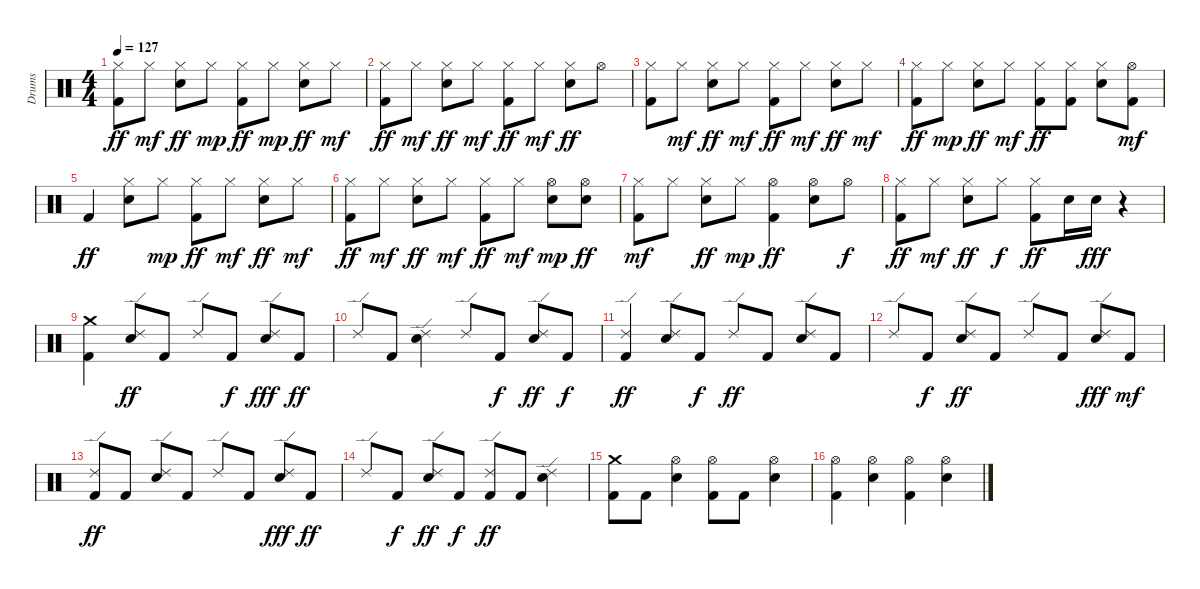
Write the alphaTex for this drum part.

\track ("Drums" "Drums") {instrument percussion}
\staff {score}
\articulation defaults
\ts (4 4)
\tempo 127
\clef neutral
\ks c
("Hi-Hat (closed)" "Kick (hit) 2").8{dy ff} "Hi-Hat (closed)".8{dy mf} ("Electric Snare (hit)" "Hi-Hat (closed)").8{dy ff} "Hi-Hat (closed)".8{dy mp} ("Hi-Hat (closed)" "Kick (hit) 2").8{dy ff} "Hi-Hat (closed)".8{dy mp} ("Electric Snare (hit)" "Hi-Hat (closed)").8{dy ff} "Hi-Hat (closed)".8{dy mf} |
("Hi-Hat (closed)" "Kick (hit) 2").8{dy ff} "Hi-Hat (closed)".8{dy mf} ("Hi-Hat (closed)" "Electric Snare (hit)").8{dy ff} "Hi-Hat (closed)".8{dy mf} ("Hi-Hat (closed)" "Kick (hit) 2").8{dy ff} "Hi-Hat (closed)".8{dy mf} ("Electric Snare (hit)" "Hi-Hat (closed)").8{dy ff} "Hi-Hat (open)".8 |
("Hi-Hat (closed)" "Kick (hit) 2").8 "Hi-Hat (closed)".8{dy mf} ("Electric Snare (hit)" "Hi-Hat (closed)").8{dy ff} "Hi-Hat (closed)".8{dy mf} ("Kick (hit) 2" "Hi-Hat (closed)").8{dy ff} "Hi-Hat (closed)".8{dy mf} ("Hi-Hat (closed)" "Electric Snare (hit)").8{dy ff} "Hi-Hat (closed)".8{dy mf} |
("Kick (hit) 2" "Hi-Hat (closed)").8{dy ff} "Hi-Hat (closed)".8{dy mp} ("Electric Snare (hit)" "Hi-Hat (closed)").8{dy ff} "Hi-Hat (closed)".8{dy mf} ("Kick (hit) 2" "Hi-Hat (closed)").8{dy ff} ("Kick (hit) 2" "Hi-Hat (closed)").8 ("Electric Snare (hit)" "Hi-Hat (closed)").8 ("Hi-Hat (open)" "Kick (hit) 2").8{dy mf} |
"Kick (hit) 2".4{dy ff} ("Electric Snare (hit)" "Hi-Hat (closed)").8 "Hi-Hat (closed)".8{dy mp} ("Hi-Hat (closed)" "Kick (hit) 2").8{dy ff} "Hi-Hat (closed)".8{dy mf} ("Hi-Hat (closed)" "Electric Snare (hit)").8{dy ff} "Hi-Hat (closed)".8{dy mf} |
("Hi-Hat (closed)" "Kick (hit) 2").8{dy ff} "Hi-Hat (closed)".8{dy mf} ("Hi-Hat (closed)" "Electric Snare (hit)").8{dy ff} "Hi-Hat (closed)".8{dy mf} ("Hi-Hat (closed)" "Kick (hit) 2").8{dy ff} "Hi-Hat (closed)".8{dy mf} ("Electric Snare (hit)" "Hi-Hat (open)").8{dy mp} ("Electric Snare (hit)" "Hi-Hat (open)").8{dy ff} |
("Kick (hit) 2" "Hi-Hat (closed)").8{dy mf} "Hi-Hat (closed)".8 ("Electric Snare (hit)" "Hi-Hat (closed)").8{dy ff} "Hi-Hat (closed)".8{dy mp} ("Hi-Hat (open)" "Kick (hit) 2").4{dy ff} ("Hi-Hat (open)" "Electric Snare (hit)").8 "Hi-Hat (open)".8{dy f} |
("Hi-Hat (closed)" "Kick (hit) 2").8{dy ff} "Hi-Hat (closed)".8{dy mf} ("Hi-Hat (closed)" "Electric Snare (hit)").8{dy ff} "Hi-Hat (closed)".8{dy f} ("Kick (hit) 2" "Hi-Hat (closed)").8{dy ff} "Electric Snare (hit)".16 "Electric Snare (hit)".16{dy fff} r.4 |
("Crash medium (hit)" "Kick (hit) 2").4 ("Ride (edge) 2" "Electric Snare (hit)").8{dy ff} "Kick (hit) 2".8 "Ride (edge) 2".8 "Kick (hit) 2".8{dy f} ("Ride (edge) 2" "Electric Snare (hit)").8{dy fff} "Kick (hit) 2".8{dy ff} |
"Ride (edge) 2".8 "Kick (hit) 2".8 ("Ride (edge) 2" "Electric Snare (hit)").4 "Ride (edge) 2".8 "Kick (hit) 2".8{dy f} ("Ride (edge) 2" "Electric Snare (hit)").8{dy ff} "Kick (hit) 2".8{dy f} |
("Ride (edge) 2" "Kick (hit) 2").4{dy ff} ("Ride (edge) 2" "Electric Snare (hit)").8 "Kick (hit) 2".8{dy f} "Ride (edge) 2".8{dy ff} "Kick (hit) 2".8 ("Ride (edge) 2" "Electric Snare (hit)").8 "Kick (hit) 2".8 |
"Ride (edge) 2".8 "Kick (hit) 2".8{dy f} ("Ride (edge) 2" "Electric Snare (hit)").8{dy ff} "Kick (hit) 2".8 "Ride (edge) 2".8 "Kick (hit) 2".8 ("Ride (edge) 2" "Electric Snare (hit)").8{dy fff} "Kick (hit) 2".8{dy mf} |
("Ride (edge) 2" "Kick (hit) 2").8{dy ff} "Kick (hit) 2".8 ("Ride (edge) 2" "Electric Snare (hit)").8 "Kick (hit) 2".8 "Ride (edge) 2".8 "Kick (hit) 2".8 ("Ride (edge) 2" "Electric Snare (hit)").8{dy fff} "Kick (hit) 2".8{dy ff} |
"Ride (edge) 2".8 "Kick (hit) 2".8{dy f} ("Ride (edge) 2" "Electric Snare (hit)").8{dy ff} "Kick (hit) 2".8{dy f} ("Ride (edge) 2" "Kick (hit) 2").8{dy ff} "Kick (hit) 2".8 ("Ride (edge) 2" "Electric Snare (hit)").4 |
("Crash medium (hit)" "Kick (hit) 2").8 "Kick (hit) 2".8 ("Electric Snare (hit)" "Hi-Hat (open)").4 ("Hi-Hat (open)" "Kick (hit) 2").8 "Kick (hit) 2".8 ("Hi-Hat (open)" "Electric Snare (hit)").4 |
("Kick (hit) 2" "Hi-Hat (open)").4 ("Hi-Hat (open)" "Electric Snare (hit)").4 ("Hi-Hat (open)" "Kick (hit) 2").4 ("Hi-Hat (open)" "Electric Snare (hit)").4
